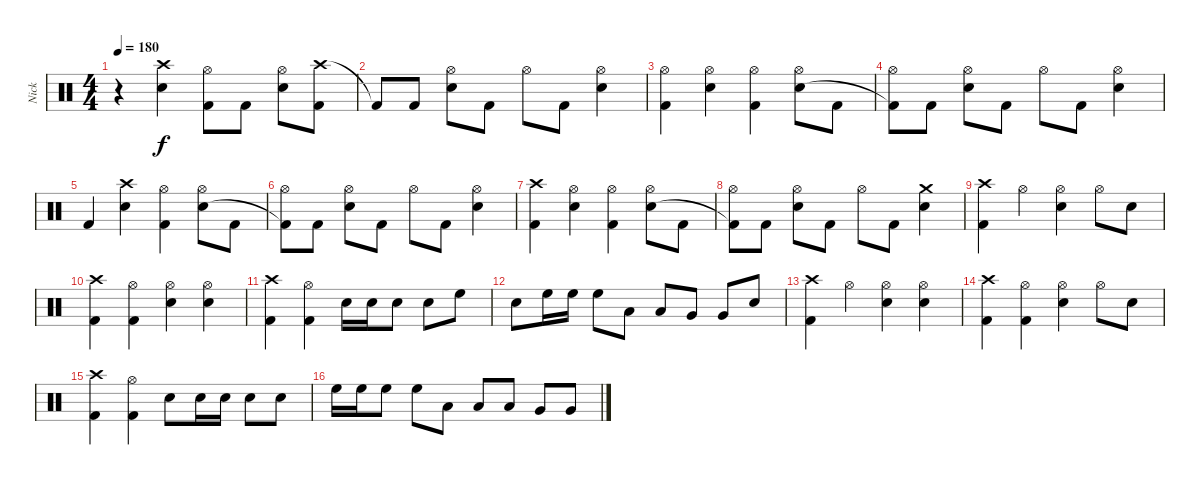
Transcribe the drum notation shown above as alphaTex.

\track ("Nick" "Nick") {instrument percussion}
\staff {score}
\articulation defaults
\ts (4 4)
\tempo 180
\clef neutral
\ks c
r.4{dy f} ("Crash high (hit)" "Snare (hit) 2").4 ("Hi-Hat (open)" "Kick (hit) 2").8 "Kick (hit) 2".8 ("Hi-Hat (open)" "Snare (hit) 2").8 ("Crash high (hit)" "Kick (hit) 2").8 |
"Kick (hit) 2"{t}.8 "Kick (hit) 2".8 ("Hi-Hat (open)" "Snare (hit) 2").8 "Kick (hit) 2".8 "Hi-Hat (open)".8 "Kick (hit) 2".8 ("Hi-Hat (open)" "Snare (hit) 2").4 |
("Hi-Hat (open)" "Kick (hit) 2").4 ("Hi-Hat (open)" "Snare (hit) 2").4 ("Hi-Hat (open)" "Kick (hit) 2").4 ("Hi-Hat (open)" "Snare (hit) 2").8 "Kick (hit) 2".8 |
("Hi-Hat (open)" "Kick (hit) 2"{t}).8 "Kick (hit) 2".8 ("Hi-Hat (open)" "Snare (hit) 2").8 "Kick (hit) 2".8 "Hi-Hat (open)".8 "Kick (hit) 2".8 ("Hi-Hat (open)" "Snare (hit) 2").4 |
"Kick (hit) 2".4 ("Crash high (hit)" "Snare (hit) 2").4 ("Hi-Hat (open)" "Kick (hit) 2").4 ("Hi-Hat (open)" "Snare (hit) 2").8 "Kick (hit) 2".8 |
("Hi-Hat (open)" "Kick (hit) 2"{t}).8 "Kick (hit) 2".8 ("Hi-Hat (open)" "Snare (hit) 2").8 "Kick (hit) 2".8 "Hi-Hat (open)".8 "Kick (hit) 2".8 ("Hi-Hat (open)" "Snare (hit) 2").4 |
("Crash high (hit)" "Kick (hit) 2").4 ("Hi-Hat (open)" "Snare (hit) 2").4 ("Hi-Hat (open)" "Kick (hit) 2").4 ("Hi-Hat (open)" "Snare (hit) 2").8 "Kick (hit) 2".8 |
("Hi-Hat (open)" "Kick (hit) 2"{t}).8 "Kick (hit) 2".8 ("Hi-Hat (open)" "Snare (hit) 2").8 "Kick (hit) 2".8 "Hi-Hat (open)".8 "Kick (hit) 2".8 ("Crash medium (hit)" "Snare (hit) 2").4 |
("Crash high (hit)" "Kick (hit) 2").4 "Hi-Hat (open)".4 ("Hi-Hat (open)" "Snare (hit) 2").4 "Hi-Hat (open)".8 "Snare (hit) 2".8 |
("Crash high (hit)" "Kick (hit) 2").4 ("Hi-Hat (open)" "Kick (hit) 2").4 ("Hi-Hat (open)" "Snare (hit) 2").4 ("Hi-Hat (open)" "Snare (hit) 2").4 |
("Crash high (hit)" "Kick (hit) 2").4 ("Hi-Hat (open)" "Kick (hit) 2").4 "Snare (hit) 2".16 "Snare (hit) 2".16 "Snare (hit) 2".8 "Snare (hit) 2".8 "High Floor Tom (hit)".8 |
"Snare (hit) 2".8 "High Floor Tom (hit)".16 "High Floor Tom (hit)".16 "High Floor Tom (hit)".8 "Low Tom (hit)".8 "Low Tom (hit)".8 "Very Low Tom (hit)".8 "Very Low Tom (hit)".8 "Snare (hit) 2".8 |
("Crash high (hit)" "Kick (hit) 2").4 "Hi-Hat (open)".4 ("Hi-Hat (open)" "Snare (hit) 2").4 ("Hi-Hat (open)" "Snare (hit) 2").4 |
("Crash high (hit)" "Kick (hit) 2").4 ("Hi-Hat (open)" "Kick (hit) 2").4 ("Hi-Hat (open)" "Snare (hit) 2").4 "Hi-Hat (open)".8 "Snare (hit) 2".8 |
("Crash high (hit)" "Kick (hit) 2").4 ("Hi-Hat (open)" "Kick (hit) 2").4 "Snare (hit) 2".8 "Snare (hit) 2".16 "Snare (hit) 2".16 "Snare (hit) 2".8 "Snare (hit) 2".8 |
"High Floor Tom (hit)".16 "High Floor Tom (hit)".16 "High Floor Tom (hit)".8 "High Floor Tom (hit)".8 "Low Tom (hit)".8 "Low Tom (hit)".8 "Low Tom (hit)".8 "Very Low Tom (hit)".8 "Very Low Tom (hit)".8
